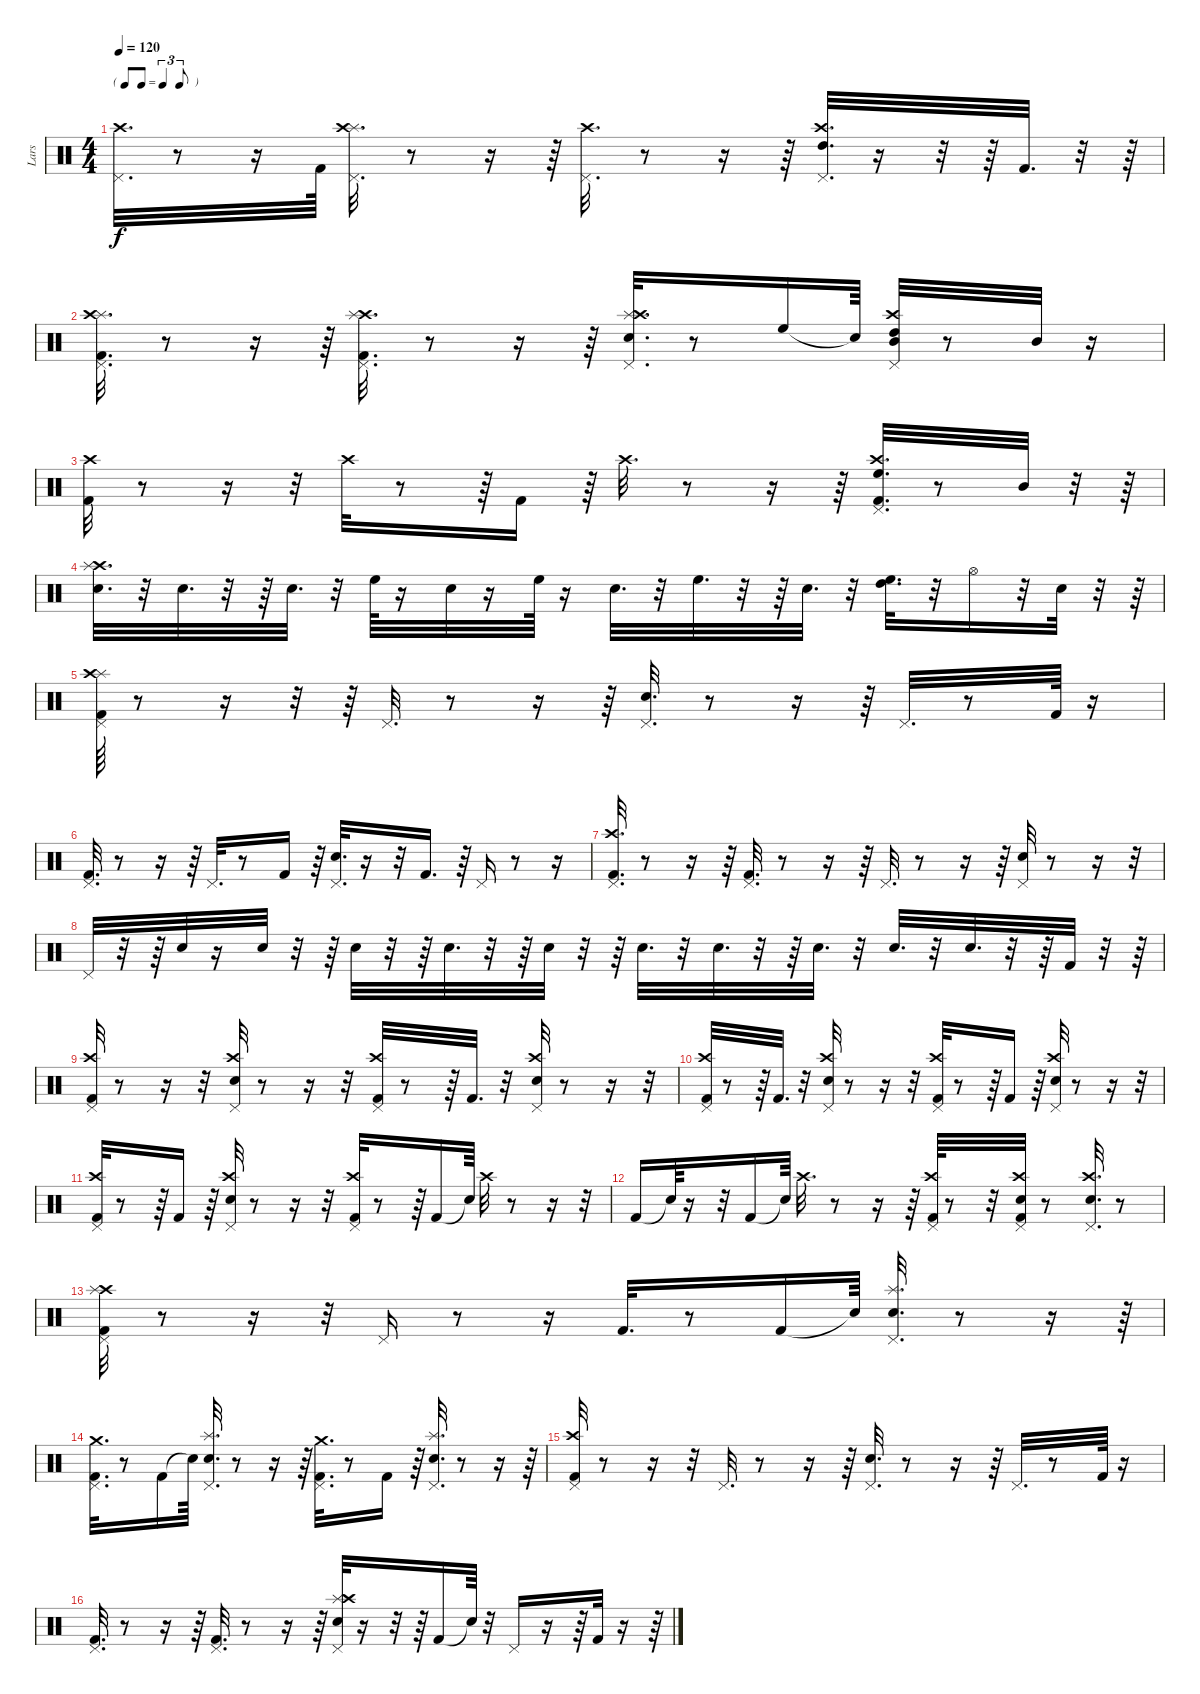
\track ("Lars" "Lars") {instrument percussion}
\staff {score}
\articulation defaults
\ts (4 4)
\tf triplet8th
\tempo 120
\clef neutral
\ks c
("Pedal Hi-Hat (hit)" "Crash high (hit)").32{d dy f} r.8 r.16 "Kick (hit) 2".64 ("Splash (hit)" "Crash high (hit)" "Pedal Hi-Hat (hit)").32{d} r.8 r.16 r.64 ("Pedal Hi-Hat (hit)" "Crash high (hit)").32{d} r.8 r.16 r.64 ("Pedal Hi-Hat (hit)" "Crash high (hit)" "High Tom (hit)").32{d} r.16 r.32 r.64 "Kick (hit) 2".32{d} r.32 r.64 |
("Kick (hit) 2" "Splash (hit)" "Crash high (hit)" "Pedal Hi-Hat (hit)").32{d} r.8 r.16 r.64 ("Kick (hit) 2" "Crash high (hit)" "Splash (hit)" "Pedal Hi-Hat (hit)").32{d} r.8 r.16 r.64 ("Electric Snare (hit)" "Pedal Hi-Hat (hit)" "Splash (hit)" "Crash high (hit)").32{d} r.8 "High Floor Tom (hit)".16 "Snare (hit)"{t}.64 ("Mid Tom (hit)" "High Tom (hit)" "Pedal Hi-Hat (hit)" "Crash high (hit)").32 r.8 "Mid Tom (hit)".32 r.16 |
("Crash high (hit)" "Kick (hit) 2").32 r.8 r.16 r.32 "Crash high (hit)".32 r.8 r.64 "Kick (hit) 2".16 r.64 "Crash high (hit)".32{d} r.8 r.16 r.64 ("Kick (hit) 2" "Pedal Hi-Hat (hit)" "High Floor Tom (hit)" "Crash high (hit)").32{d} r.8 "Mid Tom (hit)".32 r.32 r.64 |
("Crash high (hit)" "Splash (hit)" "Electric Snare (hit)").32{d} r.32 "Electric Snare (hit)".32{d} r.32 r.64 "Electric Snare (hit)".32{d} r.32 "High Floor Tom (hit)".64 r.16 "Electric Snare (hit)".32 r.16 "High Floor Tom (hit)".64 r.16 "Electric Snare (hit)".32{d} r.32 "High Floor Tom (hit)".32{d} r.32 r.64 "Electric Snare (hit)".32{d} r.32 ("High Tom (hit)" "High Floor Tom (hit)").32{d} r.32 "Hi-Hat (open)".16 r.32 "Electric Snare (hit)".32 r.32 r.64 |
("Kick (hit) 2" "Splash (hit)" "Crash high (hit)" "Pedal Hi-Hat (hit)").64 r.8 r.16 r.32 r.64 "Pedal Hi-Hat (hit)".32{d} r.8 r.16 r.64 ("Electric Snare (hit)" "Pedal Hi-Hat (hit)").32{d} r.8 r.16 r.64 "Pedal Hi-Hat (hit)".32{d} r.8 "Kick (hit) 2".64 r.16 |
("Pedal Hi-Hat (hit)" "Kick (hit) 2").32{d} r.8 r.16 r.64 "Pedal Hi-Hat (hit)".32{d} r.8 "Kick (hit) 2".16 r.64 ("Electric Snare (hit)" "Pedal Hi-Hat (hit)").32{d} r.16 r.32 "Kick (hit) 2".16{d} r.64 "Pedal Hi-Hat (hit)".16 r.8 r.16 |
("Kick (hit) 2" "Crash high (hit)" "Pedal Hi-Hat (hit)").32{d} r.8 r.16 r.64 ("Kick (hit) 2" "Pedal Hi-Hat (hit)").32{d} r.8 r.16 r.64 "Pedal Hi-Hat (hit)".32{d} r.8 r.16 r.64 ("Pedal Hi-Hat (hit)" "Electric Snare (hit)").32 r.8 r.16 r.32 |
"Pedal Hi-Hat (hit)".32 r.32 r.64 "Electric Snare (hit)".32 r.16 "Electric Snare (hit)".32 r.32 r.64 "Electric Snare (hit)".32 r.32 r.64 "Electric Snare (hit)".32{d} r.32 r.64 "Electric Snare (hit)".32 r.32 r.64 "Electric Snare (hit)".32{d} r.32 "Electric Snare (hit)".32{d} r.32 r.64 "Electric Snare (hit)".32{d} r.32 "Electric Snare (hit)".32{d} r.32 "Electric Snare (hit)".32{d} r.32 r.64 "Kick (hit) 2".32 r.32 r.64 |
("Crash high (hit)" "Pedal Hi-Hat (hit)" "Kick (hit) 2").32 r.8 r.16 r.32 ("Electric Snare (hit)" "Pedal Hi-Hat (hit)" "Crash high (hit)").32 r.8 r.16 r.32 ("Pedal Hi-Hat (hit)" "Kick (hit) 2" "Crash high (hit)").32 r.8 r.64 "Kick (hit) 2".32{d} r.32 ("Pedal Hi-Hat (hit)" "Crash high (hit)" "Electric Snare (hit)").32 r.8 r.16 r.32 |
("Kick (hit) 2" "Pedal Hi-Hat (hit)" "Crash high (hit)").32 r.8 r.64 "Kick (hit) 2".32{d} r.32 ("Crash high (hit)" "Electric Snare (hit)" "Pedal Hi-Hat (hit)").32 r.8 r.16 r.32 ("Kick (hit) 2" "Crash high (hit)" "Pedal Hi-Hat (hit)").32 r.8 r.64 "Kick (hit) 2".16 r.64 ("Pedal Hi-Hat (hit)" "Electric Snare (hit)" "Crash high (hit)").32 r.8 r.16 r.32 |
("Crash high (hit)" "Pedal Hi-Hat (hit)" "Kick (hit) 2").32 r.8 r.64 "Kick (hit) 2".16 r.64 ("Electric Snare (hit)" "Pedal Hi-Hat (hit)" "Crash high (hit)").32 r.8 r.16 r.32 ("Kick (hit) 2" "Pedal Hi-Hat (hit)" "Crash high (hit)").32 r.8 r.64 "Kick (hit) 2".16 "Snare (hit)"{t}.64 "Crash high (hit)".32 r.8 r.16 r.32 |
"Kick (hit) 2".16 "Snare (hit)"{t}.64 r.16 r.32 "Kick (hit) 2".16 "Snare (hit)"{t}.64 "Crash high (hit)".32{d} r.8 r.16 r.64 ("Pedal Hi-Hat (hit)" "Kick (hit) 2" "Crash high (hit)").64 r.8 r.32 ("Kick (hit) 2" "Crash high (hit)" "Pedal Hi-Hat (hit)" "Electric Snare (hit)").32 r.8 ("Electric Snare (hit)" "Pedal Hi-Hat (hit)" "Crash high (hit)").32{d} r.8 |
("Crash high (hit)" "Kick (hit) 2" "Splash (hit)" "Pedal Hi-Hat (hit)").32 r.8 r.16 r.32 "Pedal Hi-Hat (hit)".16 r.8 r.16 "Kick (hit) 2".32{d} r.8 "Kick (hit) 2".16 "Snare (hit)"{t}.64 ("Pedal Hi-Hat (hit)" "Electric Snare (hit)" "Splash (hit)").32{d} r.8 r.16 r.64 |
("Crash medium (hit)" "Pedal Hi-Hat (hit)" "Kick (hit) 2").32{d} r.8 "Kick (hit) 2".16 "Snare (hit)"{t}.64 ("Electric Snare (hit)" "Pedal Hi-Hat (hit)" "Splash (hit)").32{d} r.8 r.16 r.64 ("Crash medium (hit)" "Kick (hit) 2" "Pedal Hi-Hat (hit)").32{d} r.8 "Kick (hit) 2".16 r.64 ("Electric Snare (hit)" "Pedal Hi-Hat (hit)" "Splash (hit)").32{d} r.8 r.16 r.64 |
("Kick (hit) 2" "Pedal Hi-Hat (hit)" "Crash high (hit)").32 r.8 r.16 r.32 "Pedal Hi-Hat (hit)".32{d} r.8 r.16 r.64 ("Pedal Hi-Hat (hit)" "Electric Snare (hit)").32{d} r.8 r.16 r.64 "Pedal Hi-Hat (hit)".32{d} r.8 "Kick (hit) 2".64 r.16 |
("Kick (hit) 2" "Pedal Hi-Hat (hit)").32{d} r.8 r.16 r.64 ("Kick (hit) 2" "Pedal Hi-Hat (hit)").32{d} r.8 r.16 r.64 ("Splash (hit)" "Electric Snare (hit)" "Pedal Hi-Hat (hit)" "Crash high (hit)").32 r.16 r.32 r.64 "Kick (hit) 2".16 "Snare (hit)"{t}.64 r.32 "Pedal Hi-Hat (hit)".16 r.16 r.64 "Kick (hit) 2".32 r.16 r.64
